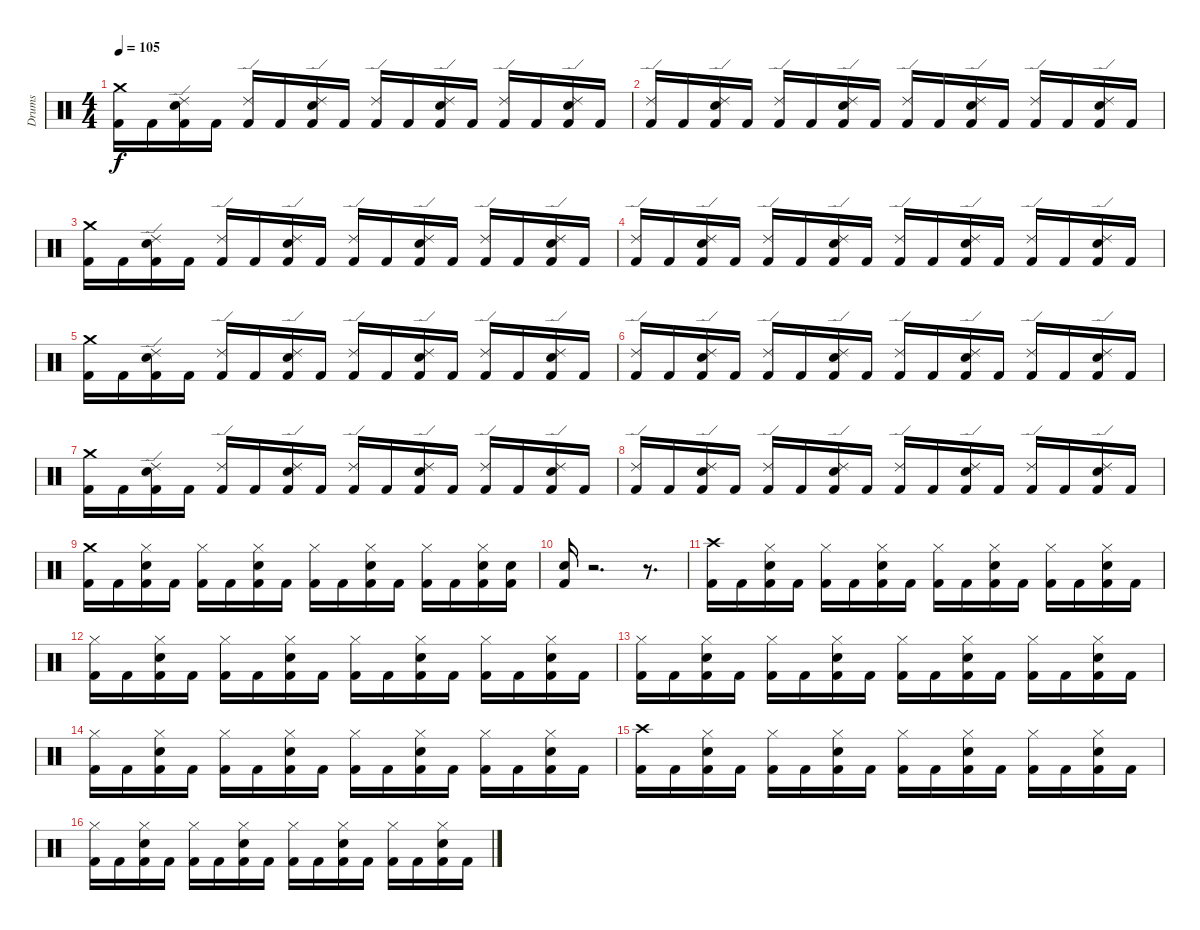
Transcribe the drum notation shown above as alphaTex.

\track ("Drums" "Drums") {instrument percussion}
\staff {score}
\articulation defaults
\ts (4 4)
\tempo 105
\clef neutral
\ks c
("Crash medium (hit)" "Kick (hit) 2").16{dy f} "Kick (hit) 2".16 ("Ride (edge) 2" "Electric Snare (hit)" "Kick (hit) 2").16 "Kick (hit) 2".16 ("Ride (edge) 2" "Kick (hit) 2").16 "Kick (hit) 2".16 ("Ride (edge) 2" "Electric Snare (hit)" "Kick (hit) 2").16 "Kick (hit) 2".16 ("Ride (edge) 2" "Kick (hit) 2").16 "Kick (hit) 2".16 ("Ride (edge) 2" "Electric Snare (hit)" "Kick (hit) 2").16 "Kick (hit) 2".16 ("Ride (edge) 2" "Kick (hit) 2").16 "Kick (hit) 2".16 ("Ride (edge) 2" "Electric Snare (hit)" "Kick (hit) 2").16 "Kick (hit) 2".16 |
("Ride (edge) 2" "Kick (hit) 2").16 "Kick (hit) 2".16 ("Ride (edge) 2" "Electric Snare (hit)" "Kick (hit) 2").16 "Kick (hit) 2".16 ("Ride (edge) 2" "Kick (hit) 2").16 "Kick (hit) 2".16 ("Ride (edge) 2" "Electric Snare (hit)" "Kick (hit) 2").16 "Kick (hit) 2".16 ("Ride (edge) 2" "Kick (hit) 2").16 "Kick (hit) 2".16 ("Ride (edge) 2" "Electric Snare (hit)" "Kick (hit) 2").16 "Kick (hit) 2".16 ("Ride (edge) 2" "Kick (hit) 2").16 "Kick (hit) 2".16 ("Ride (edge) 2" "Electric Snare (hit)" "Kick (hit) 2").16 "Kick (hit) 2".16 |
("Crash medium (hit)" "Kick (hit) 2").16 "Kick (hit) 2".16 ("Ride (edge) 2" "Electric Snare (hit)" "Kick (hit) 2").16 "Kick (hit) 2".16 ("Ride (edge) 2" "Kick (hit) 2").16 "Kick (hit) 2".16 ("Ride (edge) 2" "Electric Snare (hit)" "Kick (hit) 2").16 "Kick (hit) 2".16 ("Ride (edge) 2" "Kick (hit) 2").16 "Kick (hit) 2".16 ("Ride (edge) 2" "Electric Snare (hit)" "Kick (hit) 2").16 "Kick (hit) 2".16 ("Ride (edge) 2" "Kick (hit) 2").16 "Kick (hit) 2".16 ("Ride (edge) 2" "Electric Snare (hit)" "Kick (hit) 2").16 "Kick (hit) 2".16 |
("Ride (edge) 2" "Kick (hit) 2").16 "Kick (hit) 2".16 ("Ride (edge) 2" "Electric Snare (hit)" "Kick (hit) 2").16 "Kick (hit) 2".16 ("Ride (edge) 2" "Kick (hit) 2").16 "Kick (hit) 2".16 ("Ride (edge) 2" "Electric Snare (hit)" "Kick (hit) 2").16 "Kick (hit) 2".16 ("Ride (edge) 2" "Kick (hit) 2").16 "Kick (hit) 2".16 ("Ride (edge) 2" "Electric Snare (hit)" "Kick (hit) 2").16 "Kick (hit) 2".16 ("Ride (edge) 2" "Kick (hit) 2").16 "Kick (hit) 2".16 ("Ride (edge) 2" "Electric Snare (hit)" "Kick (hit) 2").16 "Kick (hit) 2".16 |
("Crash medium (hit)" "Kick (hit) 2").16 "Kick (hit) 2".16 ("Ride (edge) 2" "Electric Snare (hit)" "Kick (hit) 2").16 "Kick (hit) 2".16 ("Ride (edge) 2" "Kick (hit) 2").16 "Kick (hit) 2".16 ("Ride (edge) 2" "Electric Snare (hit)" "Kick (hit) 2").16 "Kick (hit) 2".16 ("Ride (edge) 2" "Kick (hit) 2").16 "Kick (hit) 2".16 ("Ride (edge) 2" "Electric Snare (hit)" "Kick (hit) 2").16 "Kick (hit) 2".16 ("Ride (edge) 2" "Kick (hit) 2").16 "Kick (hit) 2".16 ("Ride (edge) 2" "Electric Snare (hit)" "Kick (hit) 2").16 "Kick (hit) 2".16 |
("Ride (edge) 2" "Kick (hit) 2").16 "Kick (hit) 2".16 ("Ride (edge) 2" "Electric Snare (hit)" "Kick (hit) 2").16 "Kick (hit) 2".16 ("Ride (edge) 2" "Kick (hit) 2").16 "Kick (hit) 2".16 ("Ride (edge) 2" "Electric Snare (hit)" "Kick (hit) 2").16 "Kick (hit) 2".16 ("Ride (edge) 2" "Kick (hit) 2").16 "Kick (hit) 2".16 ("Ride (edge) 2" "Electric Snare (hit)" "Kick (hit) 2").16 "Kick (hit) 2".16 ("Ride (edge) 2" "Kick (hit) 2").16 "Kick (hit) 2".16 ("Ride (edge) 2" "Electric Snare (hit)" "Kick (hit) 2").16 "Kick (hit) 2".16 |
("Crash medium (hit)" "Kick (hit) 2").16 "Kick (hit) 2".16 ("Ride (edge) 2" "Electric Snare (hit)" "Kick (hit) 2").16 "Kick (hit) 2".16 ("Ride (edge) 2" "Kick (hit) 2").16 "Kick (hit) 2".16 ("Ride (edge) 2" "Electric Snare (hit)" "Kick (hit) 2").16 "Kick (hit) 2".16 ("Ride (edge) 2" "Kick (hit) 2").16 "Kick (hit) 2".16 ("Ride (edge) 2" "Electric Snare (hit)" "Kick (hit) 2").16 "Kick (hit) 2".16 ("Ride (edge) 2" "Kick (hit) 2").16 "Kick (hit) 2".16 ("Ride (edge) 2" "Electric Snare (hit)" "Kick (hit) 2").16 "Kick (hit) 2".16 |
("Ride (edge) 2" "Kick (hit) 2").16 "Kick (hit) 2".16 ("Ride (edge) 2" "Electric Snare (hit)" "Kick (hit) 2").16 "Kick (hit) 2".16 ("Ride (edge) 2" "Kick (hit) 2").16 "Kick (hit) 2".16 ("Ride (edge) 2" "Electric Snare (hit)" "Kick (hit) 2").16 "Kick (hit) 2".16 ("Ride (edge) 2" "Kick (hit) 2").16 "Kick (hit) 2".16 ("Ride (edge) 2" "Electric Snare (hit)" "Kick (hit) 2").16 "Kick (hit) 2".16 ("Ride (edge) 2" "Kick (hit) 2").16 "Kick (hit) 2".16 ("Ride (edge) 2" "Electric Snare (hit)" "Kick (hit) 2").16 "Kick (hit) 2".16 |
("Crash medium (hit)" "Kick (hit) 2").16 "Kick (hit) 2".16 ("Hi-Hat (closed)" "Electric Snare (hit)" "Kick (hit) 2").16 "Kick (hit) 2".16 ("Hi-Hat (closed)" "Kick (hit) 2").16 "Kick (hit) 2".16 ("Hi-Hat (closed)" "Electric Snare (hit)" "Kick (hit) 2").16 "Kick (hit) 2".16 ("Hi-Hat (closed)" "Kick (hit) 2").16 "Kick (hit) 2".16 ("Hi-Hat (closed)" "Electric Snare (hit)" "Kick (hit) 2").16 "Kick (hit) 2".16 ("Hi-Hat (closed)" "Kick (hit) 2").16 "Kick (hit) 2".16 ("Hi-Hat (closed)" "Electric Snare (hit)" "Kick (hit) 2").16 ("Electric Snare (hit)" "Kick (hit) 2").16 |
("Electric Snare (hit)" "Kick (hit) 2").16 r.2{d} r.8{d} |
("Crash high (hit)" "Kick (hit) 2").16 "Kick (hit) 2".16 ("Hi-Hat (closed)" "Electric Snare (hit)" "Kick (hit) 2").16 "Kick (hit) 2".16 ("Hi-Hat (closed)" "Kick (hit) 2").16 "Kick (hit) 2".16 ("Hi-Hat (closed)" "Electric Snare (hit)" "Kick (hit) 2").16 "Kick (hit) 2".16 ("Hi-Hat (closed)" "Kick (hit) 2").16 "Kick (hit) 2".16 ("Hi-Hat (closed)" "Electric Snare (hit)" "Kick (hit) 2").16 "Kick (hit) 2".16 ("Hi-Hat (closed)" "Kick (hit) 2").16 "Kick (hit) 2".16 ("Hi-Hat (closed)" "Electric Snare (hit)" "Kick (hit) 2").16 "Kick (hit) 2".16 |
("Hi-Hat (closed)" "Kick (hit) 2").16 "Kick (hit) 2".16 ("Hi-Hat (closed)" "Electric Snare (hit)" "Kick (hit) 2").16 "Kick (hit) 2".16 ("Hi-Hat (closed)" "Kick (hit) 2").16 "Kick (hit) 2".16 ("Hi-Hat (closed)" "Electric Snare (hit)" "Kick (hit) 2").16 "Kick (hit) 2".16 ("Hi-Hat (closed)" "Kick (hit) 2").16 "Kick (hit) 2".16 ("Hi-Hat (closed)" "Electric Snare (hit)" "Kick (hit) 2").16 "Kick (hit) 2".16 ("Hi-Hat (closed)" "Kick (hit) 2").16 "Kick (hit) 2".16 ("Hi-Hat (closed)" "Electric Snare (hit)" "Kick (hit) 2").16 "Kick (hit) 2".16 |
("Hi-Hat (closed)" "Kick (hit) 2").16 "Kick (hit) 2".16 ("Hi-Hat (closed)" "Electric Snare (hit)" "Kick (hit) 2").16 "Kick (hit) 2".16 ("Hi-Hat (closed)" "Kick (hit) 2").16 "Kick (hit) 2".16 ("Hi-Hat (closed)" "Electric Snare (hit)" "Kick (hit) 2").16 "Kick (hit) 2".16 ("Hi-Hat (closed)" "Kick (hit) 2").16 "Kick (hit) 2".16 ("Hi-Hat (closed)" "Electric Snare (hit)" "Kick (hit) 2").16 "Kick (hit) 2".16 ("Hi-Hat (closed)" "Kick (hit) 2").16 "Kick (hit) 2".16 ("Hi-Hat (closed)" "Electric Snare (hit)" "Kick (hit) 2").16 "Kick (hit) 2".16 |
("Hi-Hat (closed)" "Kick (hit) 2").16 "Kick (hit) 2".16 ("Hi-Hat (closed)" "Electric Snare (hit)" "Kick (hit) 2").16 "Kick (hit) 2".16 ("Hi-Hat (closed)" "Kick (hit) 2").16 "Kick (hit) 2".16 ("Hi-Hat (closed)" "Electric Snare (hit)" "Kick (hit) 2").16 "Kick (hit) 2".16 ("Hi-Hat (closed)" "Kick (hit) 2").16 "Kick (hit) 2".16 ("Hi-Hat (closed)" "Electric Snare (hit)" "Kick (hit) 2").16 "Kick (hit) 2".16 ("Hi-Hat (closed)" "Kick (hit) 2").16 "Kick (hit) 2".16 ("Hi-Hat (closed)" "Electric Snare (hit)" "Kick (hit) 2").16 "Kick (hit) 2".16 |
("Crash high (hit)" "Kick (hit) 2").16 "Kick (hit) 2".16 ("Hi-Hat (closed)" "Electric Snare (hit)" "Kick (hit) 2").16 "Kick (hit) 2".16 ("Hi-Hat (closed)" "Kick (hit) 2").16 "Kick (hit) 2".16 ("Hi-Hat (closed)" "Electric Snare (hit)" "Kick (hit) 2").16 "Kick (hit) 2".16 ("Hi-Hat (closed)" "Kick (hit) 2").16 "Kick (hit) 2".16 ("Hi-Hat (closed)" "Electric Snare (hit)" "Kick (hit) 2").16 "Kick (hit) 2".16 ("Hi-Hat (closed)" "Kick (hit) 2").16 "Kick (hit) 2".16 ("Hi-Hat (closed)" "Electric Snare (hit)" "Kick (hit) 2").16 "Kick (hit) 2".16 |
("Hi-Hat (closed)" "Kick (hit) 2").16 "Kick (hit) 2".16 ("Hi-Hat (closed)" "Electric Snare (hit)" "Kick (hit) 2").16 "Kick (hit) 2".16 ("Hi-Hat (closed)" "Kick (hit) 2").16 "Kick (hit) 2".16 ("Hi-Hat (closed)" "Electric Snare (hit)" "Kick (hit) 2").16 "Kick (hit) 2".16 ("Hi-Hat (closed)" "Kick (hit) 2").16 "Kick (hit) 2".16 ("Hi-Hat (closed)" "Electric Snare (hit)" "Kick (hit) 2").16 "Kick (hit) 2".16 ("Hi-Hat (closed)" "Kick (hit) 2").16 "Kick (hit) 2".16 ("Hi-Hat (closed)" "Electric Snare (hit)" "Kick (hit) 2").16 "Kick (hit) 2".16
